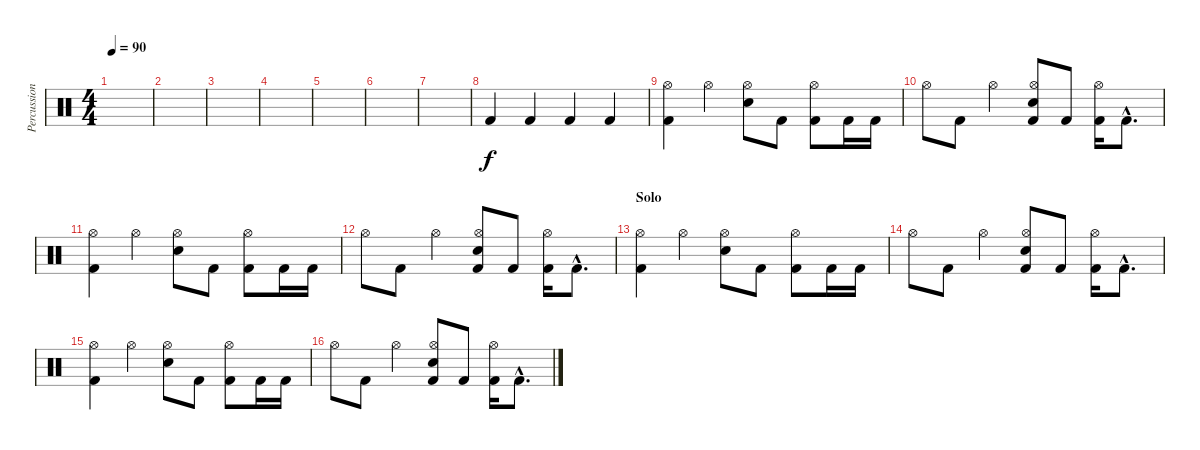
\track ("Percussion" "Percussion") {instrument percussion}
\staff {score}
\articulation defaults
\ts (4 4)
\tempo 90
\clef neutral
\ks c
|
|
|
|
|
|
|
"Kick (hit) 2".4 "Kick (hit) 2".4 "Kick (hit) 2".4 "Kick (hit) 2".4 |
("Hi-Hat (open)" "Kick (hit) 2").4 "Hi-Hat (open)".4 ("Hi-Hat (open)" "Electric Snare (hit)").8 "Kick (hit) 2".8 ("Hi-Hat (open)" "Kick (hit) 2").8 "Kick (hit) 2".16 "Kick (hit) 2".16 |
"Hi-Hat (open)".8 "Kick (hit) 2".8 "Hi-Hat (open)".4 ("Hi-Hat (open)" "Electric Snare (hit)" "Kick (hit) 2").8 "Kick (hit) 2".8 ("Hi-Hat (open)" "Kick (hit) 2").16 "Kick (hit) 2"{hac}.8{d} |
("Hi-Hat (open)" "Kick (hit) 2").4 "Hi-Hat (open)".4 ("Hi-Hat (open)" "Electric Snare (hit)").8 "Kick (hit) 2".8 ("Hi-Hat (open)" "Kick (hit) 2").8 "Kick (hit) 2".16 "Kick (hit) 2".16 |
"Hi-Hat (open)".8 "Kick (hit) 2".8 "Hi-Hat (open)".4 ("Hi-Hat (open)" "Electric Snare (hit)" "Kick (hit) 2").8 "Kick (hit) 2".8 ("Hi-Hat (open)" "Kick (hit) 2").16 "Kick (hit) 2"{hac}.8{d} |
\section ("" "Solo")
("Hi-Hat (open)" "Kick (hit) 2").4 "Hi-Hat (open)".4 ("Hi-Hat (open)" "Electric Snare (hit)").8 "Kick (hit) 2".8 ("Hi-Hat (open)" "Kick (hit) 2").8 "Kick (hit) 2".16 "Kick (hit) 2".16 |
"Hi-Hat (open)".8 "Kick (hit) 2".8 "Hi-Hat (open)".4 ("Hi-Hat (open)" "Electric Snare (hit)" "Kick (hit) 2").8 "Kick (hit) 2".8 ("Hi-Hat (open)" "Kick (hit) 2").16 "Kick (hit) 2"{hac}.8{d} |
("Hi-Hat (open)" "Kick (hit) 2").4 "Hi-Hat (open)".4 ("Hi-Hat (open)" "Electric Snare (hit)").8 "Kick (hit) 2".8 ("Hi-Hat (open)" "Kick (hit) 2").8 "Kick (hit) 2".16 "Kick (hit) 2".16 |
"Hi-Hat (open)".8 "Kick (hit) 2".8 "Hi-Hat (open)".4 ("Hi-Hat (open)" "Electric Snare (hit)" "Kick (hit) 2").8 "Kick (hit) 2".8 ("Hi-Hat (open)" "Kick (hit) 2").16 "Kick (hit) 2"{hac}.8{d}
